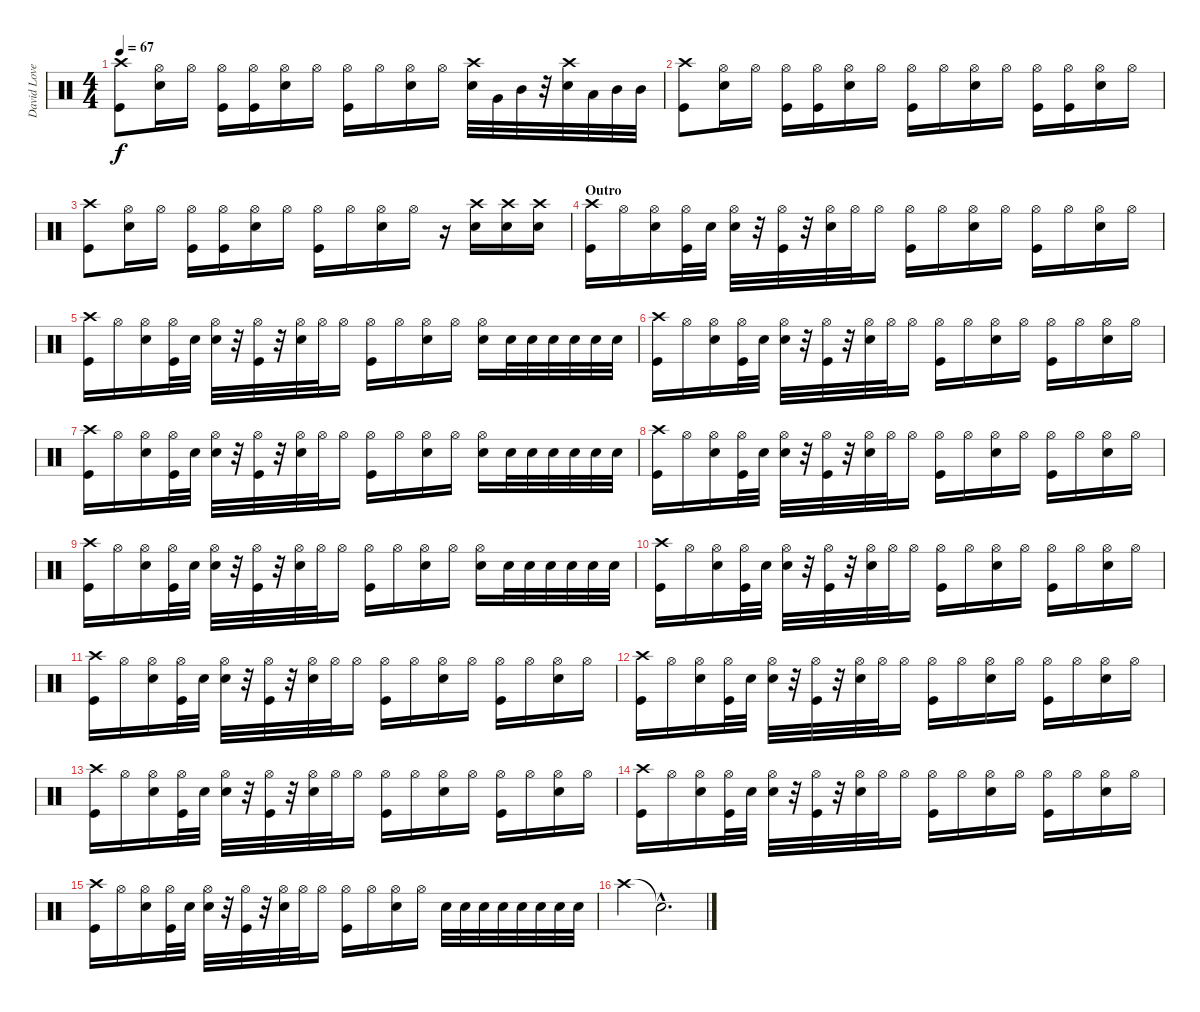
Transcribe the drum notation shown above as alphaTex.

\track ("David Lovering (Drums)" "David Love") {instrument percussion}
\staff {score}
\articulation defaults
\ts (4 4)
\tempo 67
\clef neutral
\ks c
("Crash high (hit)" "Kick (hit)").8{dy f} ("Hi-Hat (open)" "Snare (hit) 2").16 "Hi-Hat (open)".16 ("Hi-Hat (open)" "Kick (hit)").16 ("Hi-Hat (open)" "Kick (hit)").16 ("Hi-Hat (open)" "Snare (hit) 2").16 "Hi-Hat (open)".16 ("Hi-Hat (open)" "Kick (hit)").16 "Hi-Hat (open)".16 ("Hi-Hat (open)" "Snare (hit) 2").16 "Hi-Hat (open)".16 ("Crash high (hit)" "Snare (hit) 2").32 "Very Low Tom (hit)".32 "Mid Tom (hit)".32 r.32 ("Crash high (hit)" "Snare (hit) 2").32 "Low Tom (hit)".32 "Mid Tom (hit)".32 "Mid Tom (hit)".32 |
("Crash high (hit)" "Kick (hit)").8 ("Hi-Hat (open)" "Snare (hit) 2").16 "Hi-Hat (open)".16 ("Hi-Hat (open)" "Kick (hit)").16 ("Hi-Hat (open)" "Kick (hit)").16 ("Hi-Hat (open)" "Snare (hit) 2").16 "Hi-Hat (open)".16 ("Hi-Hat (open)" "Kick (hit)").16 "Hi-Hat (open)".16 ("Hi-Hat (open)" "Snare (hit) 2").16 "Hi-Hat (open)".16 ("Hi-Hat (open)" "Kick (hit)").16 ("Hi-Hat (open)" "Kick (hit)").16 ("Hi-Hat (open)" "Snare (hit) 2").16 "Hi-Hat (open)".16 |
("Crash high (hit)" "Kick (hit)").8 ("Hi-Hat (open)" "Snare (hit) 2").16 "Hi-Hat (open)".16 ("Hi-Hat (open)" "Kick (hit)").16 ("Hi-Hat (open)" "Kick (hit)").16 ("Hi-Hat (open)" "Snare (hit) 2").16 "Hi-Hat (open)".16 ("Hi-Hat (open)" "Kick (hit)").16 "Hi-Hat (open)".16 ("Hi-Hat (open)" "Snare (hit) 2").16 "Hi-Hat (open)".16 r.16 ("Crash high (hit)" "Snare (hit) 2").16 ("Crash high (hit)" "Snare (hit) 2").16 ("Crash high (hit)" "Snare (hit) 2").16 |
\section ("" "Outro")
("Crash high (hit)" "Kick (hit)").16 "Hi-Hat (open)".16 ("Hi-Hat (open)" "Snare (hit) 2").16 ("Hi-Hat (open)" "Kick (hit)").32 "Snare (hit) 2".32 ("Hi-Hat (open)" "Snare (hit) 2").32 r.32 ("Hi-Hat (open)" "Kick (hit)").32 r.32 ("Hi-Hat (open)" "Snare (hit) 2").32 "Hi-Hat (open)".32 "Hi-Hat (open)".16 ("Hi-Hat (open)" "Kick (hit)").16 "Hi-Hat (open)".16 ("Hi-Hat (open)" "Snare (hit) 2").16 "Hi-Hat (open)".16 ("Hi-Hat (open)" "Kick (hit)").16 "Hi-Hat (open)".16 ("Hi-Hat (open)" "Snare (hit) 2").16 "Hi-Hat (open)".16 |
("Crash high (hit)" "Kick (hit)").16 "Hi-Hat (open)".16 ("Hi-Hat (open)" "Snare (hit) 2").16 ("Hi-Hat (open)" "Kick (hit)").32 "Snare (hit) 2".32 ("Hi-Hat (open)" "Snare (hit) 2").32 r.32 ("Hi-Hat (open)" "Kick (hit)").32 r.32 ("Hi-Hat (open)" "Snare (hit) 2").32 "Hi-Hat (open)".32 "Hi-Hat (open)".16 ("Hi-Hat (open)" "Kick (hit)").16 "Hi-Hat (open)".16 ("Hi-Hat (open)" "Snare (hit) 2").16 "Hi-Hat (open)".16 ("Hi-Hat (open)" "Snare (hit) 2").16 "Snare (hit) 2".32 "Snare (hit) 2".32 "Snare (hit) 2".32 "Snare (hit) 2".32 "Snare (hit) 2".32 "Snare (hit) 2".32 |
("Crash high (hit)" "Kick (hit)").16 "Hi-Hat (open)".16 ("Hi-Hat (open)" "Snare (hit) 2").16 ("Hi-Hat (open)" "Kick (hit)").32 "Snare (hit) 2".32 ("Hi-Hat (open)" "Snare (hit) 2").32 r.32 ("Hi-Hat (open)" "Kick (hit)").32 r.32 ("Hi-Hat (open)" "Snare (hit) 2").32 "Hi-Hat (open)".32 "Hi-Hat (open)".16 ("Hi-Hat (open)" "Kick (hit)").16 "Hi-Hat (open)".16 ("Hi-Hat (open)" "Snare (hit) 2").16 "Hi-Hat (open)".16 ("Hi-Hat (open)" "Kick (hit)").16 "Hi-Hat (open)".16 ("Hi-Hat (open)" "Snare (hit) 2").16 "Hi-Hat (open)".16 |
("Crash high (hit)" "Kick (hit)").16 "Hi-Hat (open)".16 ("Hi-Hat (open)" "Snare (hit) 2").16 ("Hi-Hat (open)" "Kick (hit)").32 "Snare (hit) 2".32 ("Hi-Hat (open)" "Snare (hit) 2").32 r.32 ("Hi-Hat (open)" "Kick (hit)").32 r.32 ("Hi-Hat (open)" "Snare (hit) 2").32 "Hi-Hat (open)".32 "Hi-Hat (open)".16 ("Hi-Hat (open)" "Kick (hit)").16 "Hi-Hat (open)".16 ("Hi-Hat (open)" "Snare (hit) 2").16 "Hi-Hat (open)".16 ("Hi-Hat (open)" "Snare (hit) 2").16 "Snare (hit) 2".32 "Snare (hit) 2".32 "Snare (hit) 2".32 "Snare (hit) 2".32 "Snare (hit) 2".32 "Snare (hit) 2".32 |
("Crash high (hit)" "Kick (hit)").16 "Hi-Hat (open)".16 ("Hi-Hat (open)" "Snare (hit) 2").16 ("Hi-Hat (open)" "Kick (hit)").32 "Snare (hit) 2".32 ("Hi-Hat (open)" "Snare (hit) 2").32 r.32 ("Hi-Hat (open)" "Kick (hit)").32 r.32 ("Hi-Hat (open)" "Snare (hit) 2").32 "Hi-Hat (open)".32 "Hi-Hat (open)".16 ("Hi-Hat (open)" "Kick (hit)").16 "Hi-Hat (open)".16 ("Hi-Hat (open)" "Snare (hit) 2").16 "Hi-Hat (open)".16 ("Hi-Hat (open)" "Kick (hit)").16 "Hi-Hat (open)".16 ("Hi-Hat (open)" "Snare (hit) 2").16 "Hi-Hat (open)".16 |
("Crash high (hit)" "Kick (hit)").16 "Hi-Hat (open)".16 ("Hi-Hat (open)" "Snare (hit) 2").16 ("Hi-Hat (open)" "Kick (hit)").32 "Snare (hit) 2".32 ("Hi-Hat (open)" "Snare (hit) 2").32 r.32 ("Hi-Hat (open)" "Kick (hit)").32 r.32 ("Hi-Hat (open)" "Snare (hit) 2").32 "Hi-Hat (open)".32 "Hi-Hat (open)".16 ("Hi-Hat (open)" "Kick (hit)").16 "Hi-Hat (open)".16 ("Hi-Hat (open)" "Snare (hit) 2").16 "Hi-Hat (open)".16 ("Hi-Hat (open)" "Snare (hit) 2").16 "Snare (hit) 2".32 "Snare (hit) 2".32 "Snare (hit) 2".32 "Snare (hit) 2".32 "Snare (hit) 2".32 "Snare (hit) 2".32 |
("Crash high (hit)" "Kick (hit)").16 "Hi-Hat (open)".16 ("Hi-Hat (open)" "Snare (hit) 2").16 ("Hi-Hat (open)" "Kick (hit)").32 "Snare (hit) 2".32 ("Hi-Hat (open)" "Snare (hit) 2").32 r.32 ("Hi-Hat (open)" "Kick (hit)").32 r.32 ("Hi-Hat (open)" "Snare (hit) 2").32 "Hi-Hat (open)".32 "Hi-Hat (open)".16 ("Hi-Hat (open)" "Kick (hit)").16 "Hi-Hat (open)".16 ("Hi-Hat (open)" "Snare (hit) 2").16 "Hi-Hat (open)".16 ("Hi-Hat (open)" "Kick (hit)").16 "Hi-Hat (open)".16 ("Hi-Hat (open)" "Snare (hit) 2").16 "Hi-Hat (open)".16 |
("Crash high (hit)" "Kick (hit)").16 "Hi-Hat (open)".16 ("Hi-Hat (open)" "Snare (hit) 2").16 ("Hi-Hat (open)" "Kick (hit)").32 "Snare (hit) 2".32 ("Hi-Hat (open)" "Snare (hit) 2").32 r.32 ("Hi-Hat (open)" "Kick (hit)").32 r.32 ("Hi-Hat (open)" "Snare (hit) 2").32 "Hi-Hat (open)".32 "Hi-Hat (open)".16 ("Hi-Hat (open)" "Kick (hit)").16 "Hi-Hat (open)".16 ("Hi-Hat (open)" "Snare (hit) 2").16 "Hi-Hat (open)".16 ("Hi-Hat (open)" "Kick (hit)").16 "Hi-Hat (open)".16 ("Hi-Hat (open)" "Snare (hit) 2").16 "Hi-Hat (open)".16 |
("Crash high (hit)" "Kick (hit)").16 "Hi-Hat (open)".16 ("Hi-Hat (open)" "Snare (hit) 2").16 ("Hi-Hat (open)" "Kick (hit)").32 "Snare (hit) 2".32 ("Hi-Hat (open)" "Snare (hit) 2").32 r.32 ("Hi-Hat (open)" "Kick (hit)").32 r.32 ("Hi-Hat (open)" "Snare (hit) 2").32 "Hi-Hat (open)".32 "Hi-Hat (open)".16 ("Hi-Hat (open)" "Kick (hit)").16 "Hi-Hat (open)".16 ("Hi-Hat (open)" "Snare (hit) 2").16 "Hi-Hat (open)".16 ("Hi-Hat (open)" "Kick (hit)").16 "Hi-Hat (open)".16 ("Hi-Hat (open)" "Snare (hit) 2").16 "Hi-Hat (open)".16 |
("Crash high (hit)" "Kick (hit)").16 "Hi-Hat (open)".16 ("Hi-Hat (open)" "Snare (hit) 2").16 ("Hi-Hat (open)" "Kick (hit)").32 "Snare (hit) 2".32 ("Hi-Hat (open)" "Snare (hit) 2").32 r.32 ("Hi-Hat (open)" "Kick (hit)").32 r.32 ("Hi-Hat (open)" "Snare (hit) 2").32 "Hi-Hat (open)".32 "Hi-Hat (open)".16 ("Hi-Hat (open)" "Kick (hit)").16 "Hi-Hat (open)".16 ("Hi-Hat (open)" "Snare (hit) 2").16 "Hi-Hat (open)".16 ("Hi-Hat (open)" "Kick (hit)").16 "Hi-Hat (open)".16 ("Hi-Hat (open)" "Snare (hit) 2").16 "Hi-Hat (open)".16 |
("Crash high (hit)" "Kick (hit)").16 "Hi-Hat (open)".16 ("Hi-Hat (open)" "Snare (hit) 2").16 ("Hi-Hat (open)" "Kick (hit)").32 "Snare (hit) 2".32 ("Hi-Hat (open)" "Snare (hit) 2").32 r.32 ("Hi-Hat (open)" "Kick (hit)").32 r.32 ("Hi-Hat (open)" "Snare (hit) 2").32 "Hi-Hat (open)".32 "Hi-Hat (open)".16 ("Hi-Hat (open)" "Kick (hit)").16 "Hi-Hat (open)".16 ("Hi-Hat (open)" "Snare (hit) 2").16 "Hi-Hat (open)".16 ("Hi-Hat (open)" "Kick (hit)").16 "Hi-Hat (open)".16 ("Hi-Hat (open)" "Snare (hit) 2").16 "Hi-Hat (open)".16 |
("Crash high (hit)" "Kick (hit)").16 "Hi-Hat (open)".16 ("Hi-Hat (open)" "Snare (hit) 2").16 ("Hi-Hat (open)" "Kick (hit)").32 "Snare (hit) 2".32 ("Hi-Hat (open)" "Snare (hit) 2").32 r.32 ("Hi-Hat (open)" "Kick (hit)").32 r.32 ("Hi-Hat (open)" "Snare (hit) 2").32 "Hi-Hat (open)".32 "Hi-Hat (open)".16 ("Hi-Hat (open)" "Kick (hit)").16 "Hi-Hat (open)".16 ("Hi-Hat (open)" "Snare (hit) 2").16 "Hi-Hat (open)".16 "Snare (hit) 2".32 "Snare (hit) 2".32 "Snare (hit) 2".32 "Snare (hit) 2".32 "Snare (hit) 2".32 "Snare (hit) 2".32 "Snare (hit) 2".32 "Snare (hit) 2".32 |
"Crash high (hit)".4 "Snare (hit)"{hac t}.2{d}
